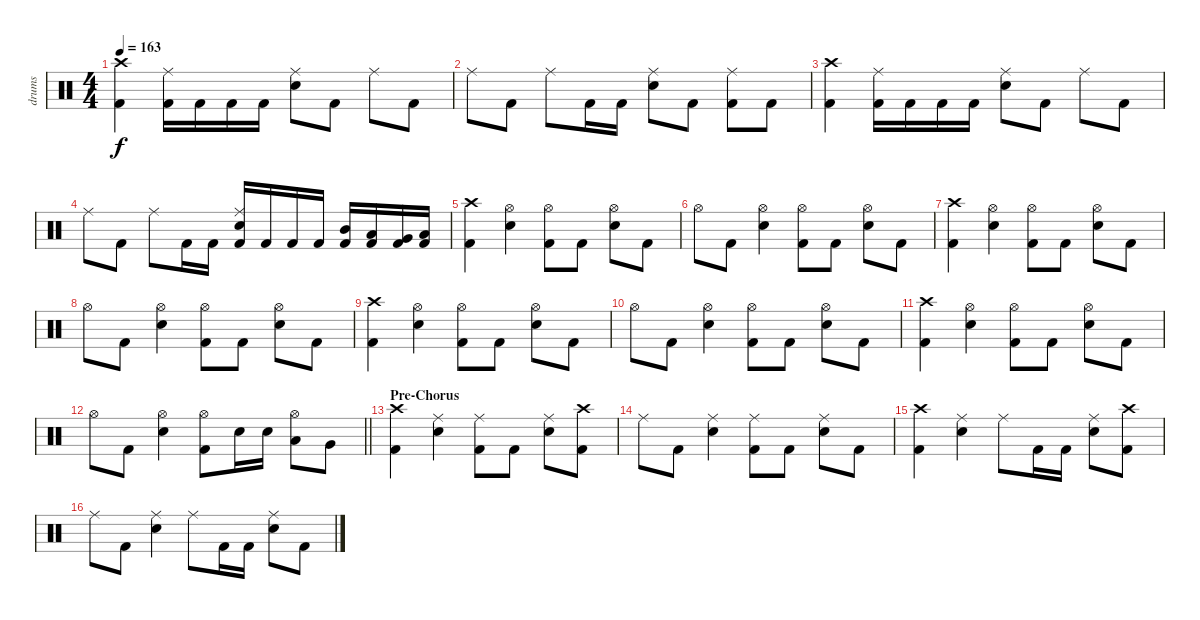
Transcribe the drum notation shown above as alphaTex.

\track ("drums" "drums") {instrument percussion}
\staff {score}
\articulation defaults
\ts (4 4)
\tempo 163
\clef neutral
\ks c
("Crash high (hit)" "Kick (hit) 2").4{dy f} ("Ride (middle)" "Kick (hit) 2").16 "Kick (hit) 2".16 "Kick (hit) 2".16 "Kick (hit) 2".16 ("Ride (middle)" "Snare (hit) 2").8 "Kick (hit) 2".8 "Ride (middle)".8 "Kick (hit) 2".8 |
"Ride (middle)".8 "Kick (hit) 2".8 "Ride (middle)".8 "Kick (hit) 2".16 "Kick (hit) 2".16 ("Ride (middle)" "Snare (hit) 2").8 "Kick (hit) 2".8 ("Ride (middle)" "Kick (hit) 2").8 "Kick (hit) 2".8 |
("Crash high (hit)" "Kick (hit) 2").4 ("Ride (middle)" "Kick (hit) 2").16 "Kick (hit) 2".16 "Kick (hit) 2".16 "Kick (hit) 2".16 ("Ride (middle)" "Snare (hit) 2").8 "Kick (hit) 2".8 "Ride (middle)".8 "Kick (hit) 2".8 |
"Ride (middle)".8 "Kick (hit) 2".8 "Ride (middle)".8 "Kick (hit) 2".16 "Kick (hit) 2".16 ("Ride (middle)" "Snare (hit) 2" "Kick (hit) 2").16 "Kick (hit) 2".16 "Kick (hit) 2".16 "Kick (hit) 2".16 ("Mid Tom (hit)" "Kick (hit) 2").16 ("Low Tom (hit)" "Kick (hit) 2").16 ("Very Low Tom (hit)" "Kick (hit) 2").16 ("Low Floor Tom (hit)" "Kick (hit) 2").16 |
("Crash high (hit)" "Kick (hit) 2").4 ("Hi-Hat (open)" "Snare (hit) 2").4 ("Hi-Hat (open)" "Kick (hit) 2").8 "Kick (hit) 2".8 ("Hi-Hat (open)" "Snare (hit) 2").8 "Kick (hit) 2".8 |
"Hi-Hat (open)".8 "Kick (hit) 2".8 ("Hi-Hat (open)" "Snare (hit) 2").4 ("Hi-Hat (open)" "Kick (hit) 2").8 "Kick (hit) 2".8 ("Hi-Hat (open)" "Snare (hit) 2").8 "Kick (hit) 2".8 |
("Crash high (hit)" "Kick (hit) 2").4 ("Hi-Hat (open)" "Snare (hit) 2").4 ("Hi-Hat (open)" "Kick (hit) 2").8 "Kick (hit) 2".8 ("Hi-Hat (open)" "Snare (hit) 2").8 "Kick (hit) 2".8 |
"Hi-Hat (open)".8 "Kick (hit) 2".8 ("Hi-Hat (open)" "Snare (hit) 2").4 ("Hi-Hat (open)" "Kick (hit) 2").8 "Kick (hit) 2".8 ("Hi-Hat (open)" "Snare (hit) 2").8 "Kick (hit) 2".8 |
("Crash high (hit)" "Kick (hit) 2").4 ("Hi-Hat (open)" "Snare (hit) 2").4 ("Hi-Hat (open)" "Kick (hit) 2").8 "Kick (hit) 2".8 ("Hi-Hat (open)" "Snare (hit) 2").8 "Kick (hit) 2".8 |
"Hi-Hat (open)".8 "Kick (hit) 2".8 ("Hi-Hat (open)" "Snare (hit) 2").4 ("Hi-Hat (open)" "Kick (hit) 2").8 "Kick (hit) 2".8 ("Hi-Hat (open)" "Snare (hit) 2").8 "Kick (hit) 2".8 |
("Crash high (hit)" "Kick (hit) 2").4 ("Hi-Hat (open)" "Snare (hit) 2").4 ("Hi-Hat (open)" "Kick (hit) 2").8 "Kick (hit) 2".8 ("Hi-Hat (open)" "Snare (hit) 2").8 "Kick (hit) 2".8 |
\barLineRight lightlight "Hi-Hat (open)".8 "Kick (hit) 2".8
("Hi-Hat (open)" "Snare (hit) 2").4 ("Hi-Hat (open)" "Kick (hit) 2").8 "Snare (hit) 2".16 "Snare (hit) 2".16 ("Hi-Hat (open)" "Low Tom (hit)").8 "Very Low Tom (hit)".8 |
\section ("" "Pre-Chorus")
("Crash high (hit)" "Kick (hit) 2").4 ("Ride (middle)" "Snare (hit) 2").4 ("Ride (middle)" "Kick (hit) 2").8 "Kick (hit) 2".8 ("Ride (middle)" "Snare (hit) 2").8 ("Crash high (hit)" "Kick (hit) 2").8 |
"Ride (middle)".8 "Kick (hit) 2".8 ("Ride (middle)" "Snare (hit) 2").4 ("Ride (middle)" "Kick (hit) 2").8 "Kick (hit) 2".8 ("Ride (middle)" "Snare (hit) 2").8 "Kick (hit) 2".8 |
("Crash high (hit)" "Kick (hit) 2").4 ("Ride (middle)" "Snare (hit) 2").4 "Ride (middle)".8 "Kick (hit) 2".16 "Kick (hit) 2".16 ("Ride (middle)" "Snare (hit) 2").8 ("Crash high (hit)" "Kick (hit) 2").8 |
"Ride (middle)".8 "Kick (hit) 2".8 ("Ride (middle)" "Snare (hit) 2").4 "Ride (middle)".8 "Kick (hit) 2".16 "Kick (hit) 2".16 ("Ride (middle)" "Snare (hit) 2").8 "Kick (hit) 2".8
